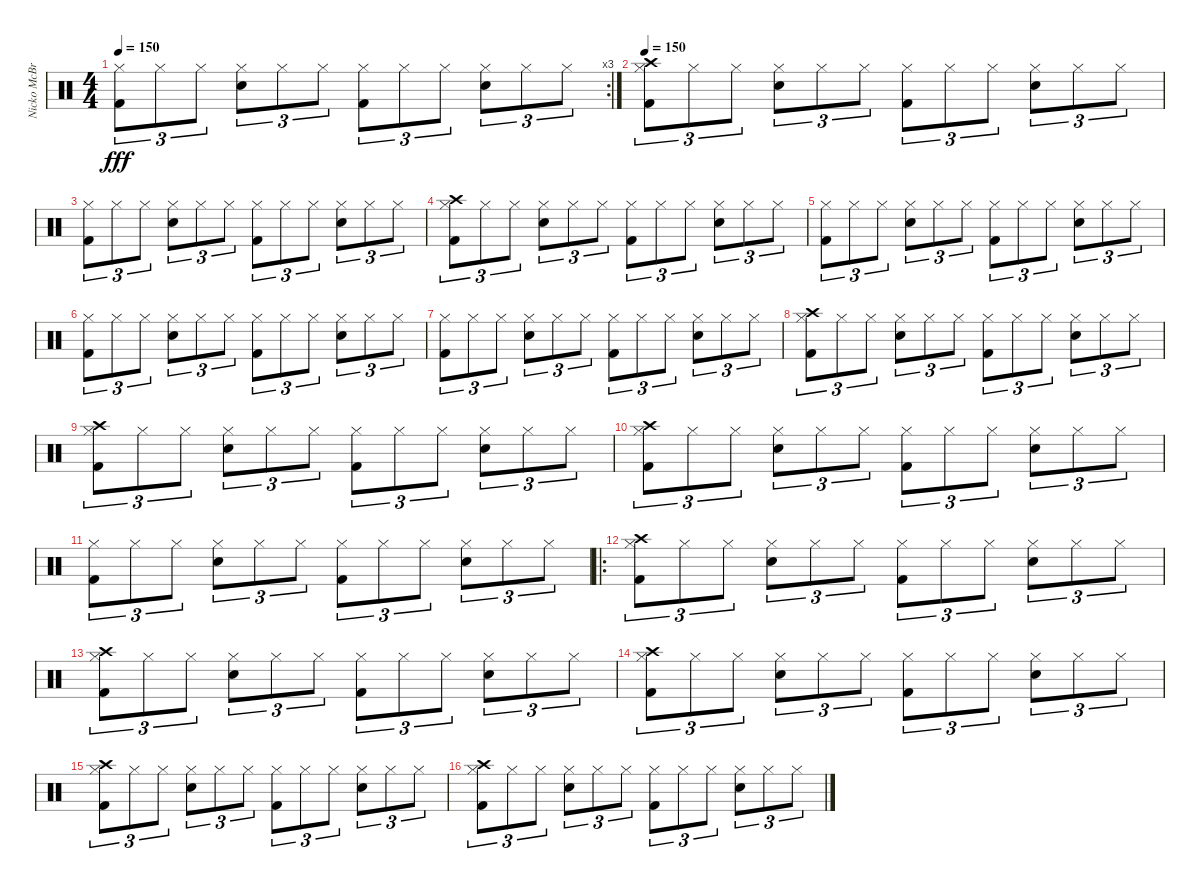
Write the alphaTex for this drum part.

\track ("Nicko McBrain" "Nicko McBr") {instrument percussion}
\staff {score}
\articulation defaults
\rc 3
\ts (4 4)
\tempo 150
\clef neutral
\ks c
("Hi-Hat (closed)" "Kick (hit) 2").8{tu (3 2) dy fff} "Hi-Hat (closed)".8{tu (3 2)} "Hi-Hat (closed)".8{tu (3 2)} ("Hi-Hat (closed)" "Snare (hit) 2").8{tu (3 2)} "Hi-Hat (closed)".8{tu (3 2)} "Hi-Hat (closed)".8{tu (3 2)} ("Hi-Hat (closed)" "Kick (hit) 2").8{tu (3 2)} "Hi-Hat (closed)".8{tu (3 2)} "Hi-Hat (closed)".8{tu (3 2)} ("Hi-Hat (closed)" "Snare (hit) 2").8{tu (3 2)} "Hi-Hat (closed)".8{tu (3 2)} "Hi-Hat (closed)".8{tu (3 2)} |
\tempo 150
("Hi-Hat (closed)" "Kick (hit) 2" "Crash high (hit)").8{tu (3 2)} "Hi-Hat (closed)".8{tu (3 2)} "Hi-Hat (closed)".8{tu (3 2)} ("Hi-Hat (closed)" "Snare (hit) 2").8{tu (3 2)} "Hi-Hat (closed)".8{tu (3 2)} "Hi-Hat (closed)".8{tu (3 2)} ("Hi-Hat (closed)" "Kick (hit) 2").8{tu (3 2)} "Hi-Hat (closed)".8{tu (3 2)} "Hi-Hat (closed)".8{tu (3 2)} ("Hi-Hat (closed)" "Snare (hit) 2").8{tu (3 2)} "Hi-Hat (closed)".8{tu (3 2)} "Hi-Hat (closed)".8{tu (3 2)} |
("Hi-Hat (closed)" "Kick (hit) 2").8{tu (3 2)} "Hi-Hat (closed)".8{tu (3 2)} "Hi-Hat (closed)".8{tu (3 2)} ("Hi-Hat (closed)" "Snare (hit) 2").8{tu (3 2)} "Hi-Hat (closed)".8{tu (3 2)} "Hi-Hat (closed)".8{tu (3 2)} ("Hi-Hat (closed)" "Kick (hit) 2").8{tu (3 2)} "Hi-Hat (closed)".8{tu (3 2)} "Hi-Hat (closed)".8{tu (3 2)} ("Hi-Hat (closed)" "Snare (hit) 2").8{tu (3 2)} "Hi-Hat (closed)".8{tu (3 2)} "Hi-Hat (closed)".8{tu (3 2)} |
("Hi-Hat (closed)" "Kick (hit) 2" "Crash high (hit)").8{tu (3 2)} "Hi-Hat (closed)".8{tu (3 2)} "Hi-Hat (closed)".8{tu (3 2)} ("Hi-Hat (closed)" "Snare (hit) 2").8{tu (3 2)} "Hi-Hat (closed)".8{tu (3 2)} "Hi-Hat (closed)".8{tu (3 2)} ("Hi-Hat (closed)" "Kick (hit) 2").8{tu (3 2)} "Hi-Hat (closed)".8{tu (3 2)} "Hi-Hat (closed)".8{tu (3 2)} ("Hi-Hat (closed)" "Snare (hit) 2").8{tu (3 2)} "Hi-Hat (closed)".8{tu (3 2)} "Hi-Hat (closed)".8{tu (3 2)} |
("Hi-Hat (closed)" "Kick (hit) 2").8{tu (3 2)} "Hi-Hat (closed)".8{tu (3 2)} "Hi-Hat (closed)".8{tu (3 2)} ("Hi-Hat (closed)" "Snare (hit) 2").8{tu (3 2)} "Hi-Hat (closed)".8{tu (3 2)} "Hi-Hat (closed)".8{tu (3 2)} ("Hi-Hat (closed)" "Kick (hit) 2").8{tu (3 2)} "Hi-Hat (closed)".8{tu (3 2)} "Hi-Hat (closed)".8{tu (3 2)} ("Hi-Hat (closed)" "Snare (hit) 2").8{tu (3 2)} "Hi-Hat (closed)".8{tu (3 2)} "Hi-Hat (closed)".8{tu (3 2)} |
("Hi-Hat (closed)" "Kick (hit) 2").8{tu (3 2)} "Hi-Hat (closed)".8{tu (3 2)} "Hi-Hat (closed)".8{tu (3 2)} ("Hi-Hat (closed)" "Snare (hit) 2").8{tu (3 2)} "Hi-Hat (closed)".8{tu (3 2)} "Hi-Hat (closed)".8{tu (3 2)} ("Hi-Hat (closed)" "Kick (hit) 2").8{tu (3 2)} "Hi-Hat (closed)".8{tu (3 2)} "Hi-Hat (closed)".8{tu (3 2)} ("Hi-Hat (closed)" "Snare (hit) 2").8{tu (3 2)} "Hi-Hat (closed)".8{tu (3 2)} "Hi-Hat (closed)".8{tu (3 2)} |
("Hi-Hat (closed)" "Kick (hit) 2").8{tu (3 2)} "Hi-Hat (closed)".8{tu (3 2)} "Hi-Hat (closed)".8{tu (3 2)} ("Hi-Hat (closed)" "Snare (hit) 2").8{tu (3 2)} "Hi-Hat (closed)".8{tu (3 2)} "Hi-Hat (closed)".8{tu (3 2)} ("Hi-Hat (closed)" "Kick (hit) 2").8{tu (3 2)} "Hi-Hat (closed)".8{tu (3 2)} "Hi-Hat (closed)".8{tu (3 2)} ("Hi-Hat (closed)" "Snare (hit) 2").8{tu (3 2)} "Hi-Hat (closed)".8{tu (3 2)} "Hi-Hat (closed)".8{tu (3 2)} |
("Hi-Hat (closed)" "Kick (hit) 2" "Crash high (hit)").8{tu (3 2)} "Hi-Hat (closed)".8{tu (3 2)} "Hi-Hat (closed)".8{tu (3 2)} ("Hi-Hat (closed)" "Snare (hit) 2").8{tu (3 2)} "Hi-Hat (closed)".8{tu (3 2)} "Hi-Hat (closed)".8{tu (3 2)} ("Hi-Hat (closed)" "Kick (hit) 2").8{tu (3 2)} "Hi-Hat (closed)".8{tu (3 2)} "Hi-Hat (closed)".8{tu (3 2)} ("Hi-Hat (closed)" "Snare (hit) 2").8{tu (3 2)} "Hi-Hat (closed)".8{tu (3 2)} "Hi-Hat (closed)".8{tu (3 2)} |
("Hi-Hat (closed)" "Kick (hit) 2" "Crash high (hit)").8{tu (3 2)} "Hi-Hat (closed)".8{tu (3 2)} "Hi-Hat (closed)".8{tu (3 2)} ("Hi-Hat (closed)" "Snare (hit) 2").8{tu (3 2)} "Hi-Hat (closed)".8{tu (3 2)} "Hi-Hat (closed)".8{tu (3 2)} ("Hi-Hat (closed)" "Kick (hit) 2").8{tu (3 2)} "Hi-Hat (closed)".8{tu (3 2)} "Hi-Hat (closed)".8{tu (3 2)} ("Hi-Hat (closed)" "Snare (hit) 2").8{tu (3 2)} "Hi-Hat (closed)".8{tu (3 2)} "Hi-Hat (closed)".8{tu (3 2)} |
("Hi-Hat (closed)" "Kick (hit) 2" "Crash high (hit)").8{tu (3 2)} "Hi-Hat (closed)".8{tu (3 2)} "Hi-Hat (closed)".8{tu (3 2)} ("Hi-Hat (closed)" "Snare (hit) 2").8{tu (3 2)} "Hi-Hat (closed)".8{tu (3 2)} "Hi-Hat (closed)".8{tu (3 2)} ("Hi-Hat (closed)" "Kick (hit) 2").8{tu (3 2)} "Hi-Hat (closed)".8{tu (3 2)} "Hi-Hat (closed)".8{tu (3 2)} ("Hi-Hat (closed)" "Snare (hit) 2").8{tu (3 2)} "Hi-Hat (closed)".8{tu (3 2)} "Hi-Hat (closed)".8{tu (3 2)} |
("Hi-Hat (closed)" "Kick (hit) 2").8{tu (3 2)} "Hi-Hat (closed)".8{tu (3 2)} "Hi-Hat (closed)".8{tu (3 2)} ("Hi-Hat (closed)" "Snare (hit) 2").8{tu (3 2)} "Hi-Hat (closed)".8{tu (3 2)} "Hi-Hat (closed)".8{tu (3 2)} ("Hi-Hat (closed)" "Kick (hit) 2").8{tu (3 2)} "Hi-Hat (closed)".8{tu (3 2)} "Hi-Hat (closed)".8{tu (3 2)} ("Hi-Hat (closed)" "Snare (hit) 2").8{tu (3 2)} "Hi-Hat (closed)".8{tu (3 2)} "Hi-Hat (closed)".8{tu (3 2)} |
\ro
("Hi-Hat (closed)" "Kick (hit) 2" "Crash high (hit)").8{tu (3 2)} "Hi-Hat (closed)".8{tu (3 2)} "Hi-Hat (closed)".8{tu (3 2)} ("Hi-Hat (closed)" "Snare (hit) 2").8{tu (3 2)} "Hi-Hat (closed)".8{tu (3 2)} "Hi-Hat (closed)".8{tu (3 2)} ("Hi-Hat (closed)" "Kick (hit) 2").8{tu (3 2)} "Hi-Hat (closed)".8{tu (3 2)} "Hi-Hat (closed)".8{tu (3 2)} ("Hi-Hat (closed)" "Snare (hit) 2").8{tu (3 2)} "Hi-Hat (closed)".8{tu (3 2)} "Hi-Hat (closed)".8{tu (3 2)} |
("Hi-Hat (closed)" "Kick (hit) 2" "Crash high (hit)").8{tu (3 2)} "Hi-Hat (closed)".8{tu (3 2)} "Hi-Hat (closed)".8{tu (3 2)} ("Hi-Hat (closed)" "Snare (hit) 2").8{tu (3 2)} "Hi-Hat (closed)".8{tu (3 2)} "Hi-Hat (closed)".8{tu (3 2)} ("Hi-Hat (closed)" "Kick (hit) 2").8{tu (3 2)} "Hi-Hat (closed)".8{tu (3 2)} "Hi-Hat (closed)".8{tu (3 2)} ("Hi-Hat (closed)" "Snare (hit) 2").8{tu (3 2)} "Hi-Hat (closed)".8{tu (3 2)} "Hi-Hat (closed)".8{tu (3 2)} |
("Hi-Hat (closed)" "Kick (hit) 2" "Crash high (hit)").8{tu (3 2)} "Hi-Hat (closed)".8{tu (3 2)} "Hi-Hat (closed)".8{tu (3 2)} ("Hi-Hat (closed)" "Snare (hit) 2").8{tu (3 2)} "Hi-Hat (closed)".8{tu (3 2)} "Hi-Hat (closed)".8{tu (3 2)} ("Hi-Hat (closed)" "Kick (hit) 2").8{tu (3 2)} "Hi-Hat (closed)".8{tu (3 2)} "Hi-Hat (closed)".8{tu (3 2)} ("Hi-Hat (closed)" "Snare (hit) 2").8{tu (3 2)} "Hi-Hat (closed)".8{tu (3 2)} "Hi-Hat (closed)".8{tu (3 2)} |
("Hi-Hat (closed)" "Kick (hit) 2" "Crash high (hit)").8{tu (3 2)} "Hi-Hat (closed)".8{tu (3 2)} "Hi-Hat (closed)".8{tu (3 2)} ("Hi-Hat (closed)" "Snare (hit) 2").8{tu (3 2)} "Hi-Hat (closed)".8{tu (3 2)} "Hi-Hat (closed)".8{tu (3 2)} ("Hi-Hat (closed)" "Kick (hit) 2").8{tu (3 2)} "Hi-Hat (closed)".8{tu (3 2)} "Hi-Hat (closed)".8{tu (3 2)} ("Hi-Hat (closed)" "Snare (hit) 2").8{tu (3 2)} "Hi-Hat (closed)".8{tu (3 2)} "Hi-Hat (closed)".8{tu (3 2)} |
("Hi-Hat (closed)" "Kick (hit) 2" "Crash high (hit)").8{tu (3 2)} "Hi-Hat (closed)".8{tu (3 2)} "Hi-Hat (closed)".8{tu (3 2)} ("Hi-Hat (closed)" "Snare (hit) 2").8{tu (3 2)} "Hi-Hat (closed)".8{tu (3 2)} "Hi-Hat (closed)".8{tu (3 2)} ("Hi-Hat (closed)" "Kick (hit) 2").8{tu (3 2)} "Hi-Hat (closed)".8{tu (3 2)} "Hi-Hat (closed)".8{tu (3 2)} ("Hi-Hat (closed)" "Snare (hit) 2").8{tu (3 2)} "Hi-Hat (closed)".8{tu (3 2)} "Hi-Hat (closed)".8{tu (3 2)}
